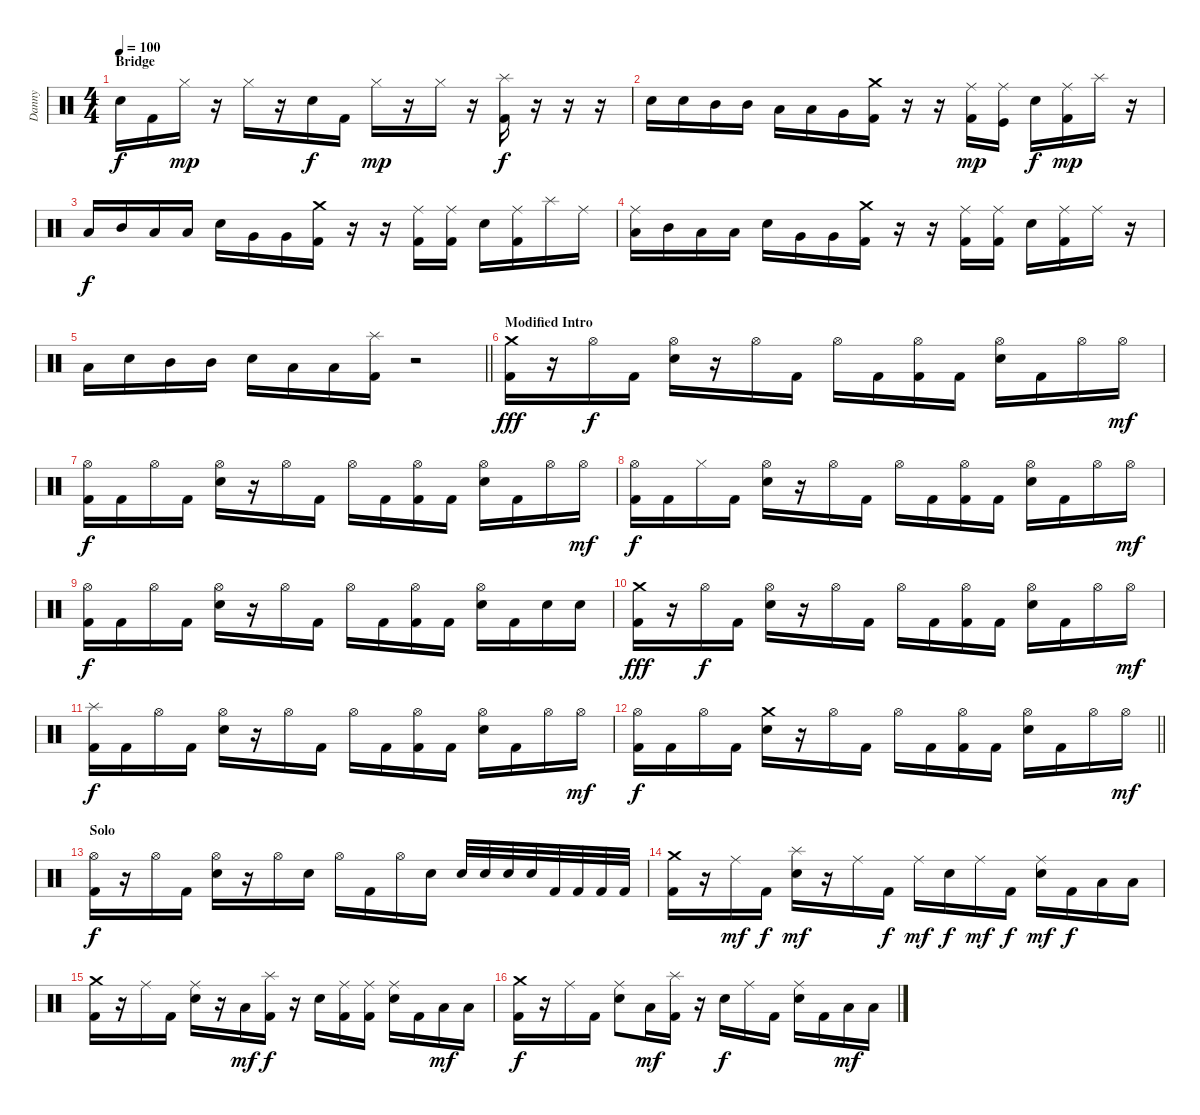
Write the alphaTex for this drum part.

\track ("Danny" "Danny") {instrument percussion}
\staff {score}
\articulation defaults
\ts (4 4)
\section ("" "Bridge")
\tempo 100
\clef neutral
\ks c "Electric Snare (hit)".16{dy f} "Kick (hit) 2".16 "Hi-Hat (closed)".16{dy mp}
r.16 "Hi-Hat (closed)".16 r.16 "Electric Snare (hit)".16{dy f} "Kick (hit) 2".16 "Hi-Hat (closed)".16{dy mp} r.16 "Hi-Hat (closed)".16 r.16 ("Splash (hit)" "Kick (hit) 2").16{dy f} r.16 r.16 r.16 |
"Electric Snare (hit)".16 "Electric Snare (hit)".16 "Mid Tom (hit)".16 "Mid Tom (hit)".16 "Low Tom (hit)".16 "Low Tom (hit)".16 "Very Low Tom (hit)".16 ("Crash medium (hit)" "Kick (hit) 2").16 r.16 r.16 ("Ride (middle)" "Kick (hit) 2").16{dy mp} ("Ride (middle)" "Kick (hit)").16 "Electric Snare (hit)".16{dy f} ("Ride (middle)" "Kick (hit) 2").16{dy mp} "Splash (hit)".16 r.16 |
"Low Tom (hit)".16{dy f} "Mid Tom (hit)".16 "Low Tom (hit)".16 "Low Tom (hit)".16 "Electric Snare (hit)".16 "Very Low Tom (hit)".16 "Very Low Tom (hit)".16 ("Crash medium (hit)" "Kick (hit) 2").16 r.16 r.16 ("Ride (middle)" "Kick (hit) 2").16 ("Ride (middle)" "Kick (hit) 2").16 "Electric Snare (hit)".16 ("Ride (middle)" "Kick (hit) 2").16 "Splash (hit)".16 "Ride (middle)".16 |
("Ride (middle)" "Low Tom (hit)").16 "Mid Tom (hit)".16 "Low Tom (hit)".16 "Low Tom (hit)".16 "Electric Snare (hit)".16 "Very Low Tom (hit)".16 "Very Low Tom (hit)".16 ("Crash medium (hit)" "Kick (hit) 2").16 r.16 r.16 ("Ride (middle)" "Kick (hit) 2").16 ("Ride (middle)" "Kick (hit) 2").16 "Electric Snare (hit)".16 ("Ride (middle)" "Kick (hit) 2").16 "Ride (middle)".16 r.16 |
\barLineRight lightlight "Low Tom (hit)".16 "Electric Snare (hit)".16 "Mid Tom (hit)".16 "Mid Tom (hit)".16 "Electric Snare (hit)".16 "Low Tom (hit)".16 "Low Tom (hit)".16
("Splash (hit)" "Kick (hit) 2").16 r.2 |
\section ("" "Modified Intro")
("Crash medium (hit)" "Kick (hit) 2").16{dy fff} r.16 "Hi-Hat (open)".16{dy f} "Kick (hit) 2".16 ("Hi-Hat (open)" "Electric Snare (hit)").16 r.16 "Hi-Hat (open)".16 "Kick (hit) 2".16 "Hi-Hat (open)".16 "Kick (hit) 2".16 ("Hi-Hat (open)" "Kick (hit) 2").16 "Kick (hit) 2".16 ("Hi-Hat (open)" "Electric Snare (hit)").16 "Kick (hit) 2".16 "Hi-Hat (open)".16 "Hi-Hat (open)".16{dy mf} |
("Hi-Hat (open)" "Kick (hit) 2").16{dy f} "Kick (hit) 2".16 "Hi-Hat (open)".16 "Kick (hit) 2".16 ("Hi-Hat (open)" "Electric Snare (hit)").16 r.16 "Hi-Hat (open)".16 "Kick (hit) 2".16 "Hi-Hat (open)".16 "Kick (hit) 2".16 ("Hi-Hat (open)" "Kick (hit) 2").16 "Kick (hit) 2".16 ("Hi-Hat (open)" "Electric Snare (hit)").16 "Kick (hit) 2".16 "Hi-Hat (open)".16 "Hi-Hat (open)".16{dy mf} |
("Hi-Hat (open)" "Kick (hit) 2").16{dy f} "Kick (hit) 2".16 "Hi-Hat (closed)".16 "Kick (hit) 2".16 ("Hi-Hat (open)" "Electric Snare (hit)").16 r.16 "Hi-Hat (open)".16 "Kick (hit) 2".16 "Hi-Hat (open)".16 "Kick (hit) 2".16 ("Hi-Hat (open)" "Kick (hit) 2").16 "Kick (hit) 2".16 ("Hi-Hat (open)" "Electric Snare (hit)").16 "Kick (hit) 2".16 "Hi-Hat (open)".16 "Hi-Hat (open)".16{dy mf} |
("Hi-Hat (open)" "Kick (hit) 2").16{dy f} "Kick (hit) 2".16 "Hi-Hat (open)".16 "Kick (hit) 2".16 ("Hi-Hat (open)" "Electric Snare (hit)").16 r.16 "Hi-Hat (open)".16 "Kick (hit) 2".16 "Hi-Hat (open)".16 "Kick (hit) 2".16 ("Hi-Hat (open)" "Kick (hit) 2").16 "Kick (hit) 2".16 ("Hi-Hat (open)" "Electric Snare (hit)").16 "Kick (hit) 2".16 "Electric Snare (hit)".16 "Electric Snare (hit)".16 |
("Crash medium (hit)" "Kick (hit) 2").16{dy fff} r.16 "Hi-Hat (open)".16{dy f} "Kick (hit) 2".16 ("Hi-Hat (open)" "Electric Snare (hit)").16 r.16 "Hi-Hat (open)".16 "Kick (hit) 2".16 "Hi-Hat (open)".16 "Kick (hit) 2".16 ("Hi-Hat (open)" "Kick (hit) 2").16 "Kick (hit) 2".16 ("Hi-Hat (open)" "Electric Snare (hit)").16 "Kick (hit) 2".16 "Hi-Hat (open)".16 "Hi-Hat (open)".16{dy mf} |
("Splash (hit)" "Kick (hit) 2").16{dy f} "Kick (hit) 2".16 "Hi-Hat (open)".16 "Kick (hit) 2".16 ("Hi-Hat (open)" "Electric Snare (hit)").16 r.16 "Hi-Hat (open)".16 "Kick (hit) 2".16 "Hi-Hat (open)".16 "Kick (hit) 2".16 ("Hi-Hat (open)" "Kick (hit) 2").16 "Kick (hit) 2".16 ("Hi-Hat (open)" "Electric Snare (hit)").16 "Kick (hit) 2".16 "Hi-Hat (open)".16 "Hi-Hat (open)".16{dy mf} |
\barLineRight lightlight
("Hi-Hat (open)" "Kick (hit) 2").16{dy f} "Kick (hit) 2".16 "Hi-Hat (open)".16 "Kick (hit) 2".16 ("Crash medium (hit)" "Electric Snare (hit)").16 r.16 "Hi-Hat (open)".16 "Kick (hit) 2".16 "Hi-Hat (open)".16 "Kick (hit) 2".16 ("Hi-Hat (open)" "Kick (hit) 2").16 "Kick (hit) 2".16 ("Hi-Hat (open)" "Electric Snare (hit)").16 "Kick (hit) 2".16 "Hi-Hat (open)".16 "Hi-Hat (open)".16{dy mf} |
\section ("" "Solo")
("Hi-Hat (open)" "Kick (hit) 2").16{dy f} r.16 "Hi-Hat (open)".16 "Kick (hit) 2".16 ("Hi-Hat (open)" "Electric Snare (hit)").16 r.16 "Hi-Hat (open)".16 "Electric Snare (hit)".16 "Hi-Hat (open)".16 "Kick (hit) 2".16 "Hi-Hat (open)".16 "Electric Snare (hit)".16 "Electric Snare (hit)".32 "Electric Snare (hit)".32 "Electric Snare (hit)".32 "Electric Snare (hit)".32 "Kick (hit) 2".32 "Kick (hit) 2".32 "Kick (hit) 2".32 "Kick (hit) 2".32 |
("Crash medium (hit)" "Kick (hit) 2").16 r.16 "Ride (middle)".16{dy mf} "Kick (hit) 2".16{dy f} ("Splash (hit)" "Electric Snare (hit)").16{dy mf} r.16 "Ride (middle)".16 "Kick (hit) 2".16{dy f} "Ride (middle)".16{dy mf} "Electric Snare (hit)".16{dy f} "Ride (middle)".16{dy mf} "Kick (hit) 2".16{dy f} ("Ride (middle)" "Electric Snare (hit)").16{dy mf} "Kick (hit) 2".16{dy f} "Low Tom (hit)".16 "Low Tom (hit)".16 |
("Crash medium (hit)" "Kick (hit) 2").16 r.16 "Ride (middle)".16 "Kick (hit) 2".16 ("Ride (middle)" "Electric Snare (hit)").16 r.16 "Low Tom (hit)".16{dy mf} ("Splash (hit)" "Kick (hit) 2").16{dy f} r.16 "Electric Snare (hit)".16 ("Ride (middle)" "Kick (hit) 2").16 ("Ride (middle)" "Kick (hit) 2").16 ("Ride (middle)" "Electric Snare (hit)").16 "Kick (hit) 2".16 "Low Tom (hit)".16{dy mf} "Low Tom (hit)".16 |
("Crash medium (hit)" "Kick (hit) 2").16{dy f} r.16 "Ride (middle)".16 "Kick (hit) 2".16 ("Ride (middle)" "Electric Snare (hit)").8 "Low Tom (hit)".16{dy mf} ("Splash (hit)" "Kick (hit) 2").16 r.16 "Electric Snare (hit)".16{dy f} "Ride (middle)".16 "Kick (hit) 2".16 ("Ride (middle)" "Electric Snare (hit)").16 "Kick (hit) 2".16 "Low Tom (hit)".16{dy mf} "Low Tom (hit)".16
